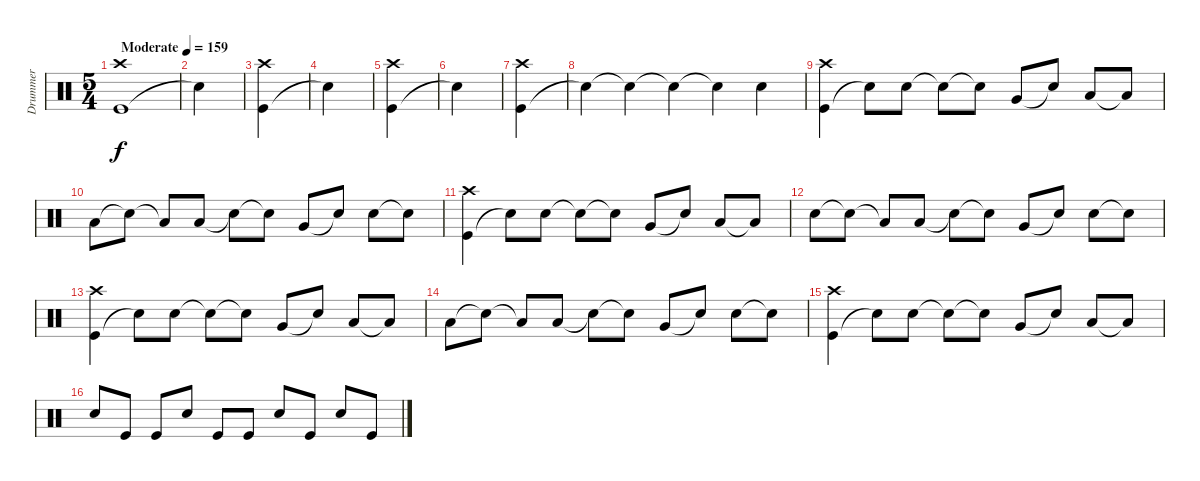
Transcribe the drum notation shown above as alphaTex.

\track ("Drummer" "Drummer") {instrument percussion}
\staff {score}
\articulation defaults
\ts (5 4)
\tempo (159 "Moderate")
\clef neutral
\ks c
("Kick (hit)" "Crash high (hit)").1{dy f} |
"Snare (hit)"{t}.4 |
("Kick (hit)" "Crash high (hit)").4 |
"Snare (hit)"{t}.4 |
("Kick (hit)" "Crash high (hit)").4 |
"Snare (hit)"{t}.4 |
("Kick (hit)" "Crash high (hit)").4 |
"Snare (hit)"{t}.4 "Snare (hit)"{t}.4 "Snare (hit)"{t}.4 "Snare (hit)"{t}.4 "Snare (hit) 2".4 |
("Kick (hit)" "Crash high (hit)").4 "Snare (hit) 2"{t}.8 "Snare (hit) 2".8 "Snare (hit)"{t}.8 "Snare (hit)"{t}.8 "Very Low Tom (hit)".8 "Snare (hit)"{t}.8 "Low Tom (hit)".8 "Low Tom (hit)"{t}.8 |
"Low Floor Tom (hit)".8 "Snare (hit)"{t}.8 "Low Tom (hit)"{t}.8 "Low Tom (hit)".8 "Snare (hit)"{t}.8 "Snare (hit)"{t}.8 "Very Low Tom (hit)".8 "Snare (hit) 2"{t}.8 "Snare (hit) 2".8 "Snare (hit)"{t}.8 |
("Kick (hit)" "Crash high (hit)").4 "Snare (hit) 2"{t}.8 "Snare (hit) 2".8 "Snare (hit)"{t}.8 "Snare (hit)"{t}.8 "Very Low Tom (hit)".8 "Snare (hit)"{t}.8 "Low Tom (hit)".8 "Low Tom (hit)"{t}.8 |
"Snare (hit) 2".8 "Snare (hit)"{t}.8 "Low Tom (hit)"{t}.8 "Low Tom (hit)".8 "Snare (hit)"{t}.8 "Snare (hit)"{t}.8 "Very Low Tom (hit)".8 "Snare (hit) 2"{t}.8 "Snare (hit) 2".8 "Snare (hit)"{t}.8 |
("Kick (hit)" "Crash high (hit)").4 "Snare (hit) 2"{t}.8 "Snare (hit) 2".8 "Snare (hit)"{t}.8 "Snare (hit)"{t}.8 "Very Low Tom (hit)".8 "Snare (hit)"{t}.8 "Low Tom (hit)".8 "Low Tom (hit)"{t}.8 |
"Low Floor Tom (hit)".8 "Snare (hit)"{t}.8 "Low Tom (hit)"{t}.8 "Low Tom (hit)".8 "Snare (hit)"{t}.8 "Snare (hit)"{t}.8 "Very Low Tom (hit)".8 "Snare (hit) 2"{t}.8 "Snare (hit) 2".8 "Snare (hit)"{t}.8 |
("Kick (hit)" "Crash high (hit)").4 "Snare (hit) 2"{t}.8 "Snare (hit) 2".8 "Snare (hit)"{t}.8 "Snare (hit)"{t}.8 "Very Low Tom (hit)".8 "Snare (hit)"{t}.8 "Low Tom (hit)".8 "Low Tom (hit)"{t}.8 |
"Snare (hit) 2".8 "Kick (hit)".8 "Kick (hit)".8 "Snare (hit) 2".8 "Kick (hit)".8 "Kick (hit)".8 "Snare (hit) 2".8 "Kick (hit)".8 "Snare (hit) 2".8 "Kick (hit)".8
